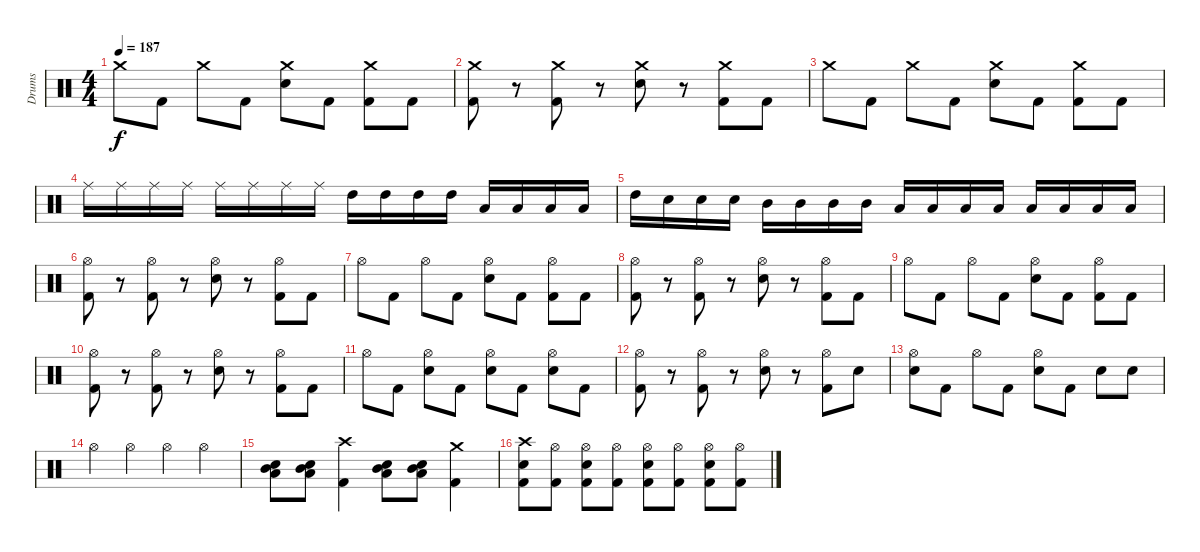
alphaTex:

\track ("Drums" "Drums") {instrument percussion}
\staff {score}
\articulation defaults
\ts (4 4)
\tempo 187
\clef neutral
\ks c "Crash medium (hit)".8{dy f} "Kick (hit) 2".8 "Crash medium (hit)".8 "Kick (hit) 2".8
("Crash medium (hit)" "Electric Snare (hit)").8 "Kick (hit) 2".8 ("Crash medium (hit)" "Kick (hit) 2").8 "Kick (hit) 2".8 |
("Crash medium (hit)" "Kick (hit) 2").8 r.8 ("Crash medium (hit)" "Kick (hit) 2").8 r.8 ("Crash medium (hit)" "Electric Snare (hit)").8 r.8 ("Crash medium (hit)" "Kick (hit) 2").8 "Kick (hit) 2".8 |
"Crash medium (hit)".8 "Kick (hit) 2".8 "Crash medium (hit)".8 "Kick (hit) 2".8 ("Crash medium (hit)" "Electric Snare (hit)").8 "Kick (hit) 2".8 ("Crash medium (hit)" "Kick (hit) 2").8 "Kick (hit) 2".8 |
"Ride (middle)".16 "Ride (middle)".16 "Ride (middle)".16 "Ride (middle)".16 "Ride (middle)".16 "Ride (middle)".16 "Ride (middle)".16 "Ride (middle)".16 "High Tom (hit)".16 "High Tom (hit)".16 "High Tom (hit)".16 "High Tom (hit)".16 "Low Tom (hit)".16 "Low Tom (hit)".16 "Low Tom (hit)".16 "Low Tom (hit)".16 |
"High Tom (hit)".16 "Electric Snare (hit)".16 "Electric Snare (hit)".16 "Electric Snare (hit)".16 "Mid Tom (hit)".16 "Mid Tom (hit)".16 "Mid Tom (hit)".16 "Mid Tom (hit)".16 "Low Tom (hit)".16 "Low Tom (hit)".16 "Low Tom (hit)".16 "Low Tom (hit)".16 "Low Floor Tom (hit)".16 "Low Floor Tom (hit)".16 "Low Floor Tom (hit)".16 "Low Floor Tom (hit)".16 |
("Hi-Hat (open)" "Kick (hit) 2").8 r.8 ("Hi-Hat (open)" "Kick (hit) 2").8 r.8 ("Hi-Hat (open)" "Electric Snare (hit)").8 r.8 ("Hi-Hat (open)" "Kick (hit) 2").8 "Kick (hit) 2".8 |
"Hi-Hat (open)".8 "Kick (hit) 2".8 "Hi-Hat (open)".8 "Kick (hit) 2".8 ("Hi-Hat (open)" "Electric Snare (hit)").8 "Kick (hit) 2".8 ("Hi-Hat (open)" "Kick (hit) 2").8 "Kick (hit) 2".8 |
("Hi-Hat (open)" "Kick (hit) 2").8 r.8 ("Hi-Hat (open)" "Kick (hit) 2").8 r.8 ("Hi-Hat (open)" "Electric Snare (hit)").8 r.8 ("Hi-Hat (open)" "Kick (hit) 2").8 "Kick (hit) 2".8 |
"Hi-Hat (open)".8 "Kick (hit) 2".8 "Hi-Hat (open)".8 "Kick (hit) 2".8 ("Hi-Hat (open)" "Electric Snare (hit)").8 "Kick (hit) 2".8 ("Hi-Hat (open)" "Kick (hit) 2").8 "Kick (hit) 2".8 |
("Hi-Hat (open)" "Kick (hit) 2").8 r.8 ("Hi-Hat (open)" "Kick (hit) 2").8 r.8 ("Hi-Hat (open)" "Electric Snare (hit)").8 r.8 ("Hi-Hat (open)" "Kick (hit) 2").8 "Kick (hit) 2".8 |
"Hi-Hat (open)".8 "Kick (hit) 2".8 ("Hi-Hat (open)" "Electric Snare (hit)").8 "Kick (hit) 2".8 ("Hi-Hat (open)" "Electric Snare (hit)").8 "Kick (hit) 2".8 ("Hi-Hat (open)" "Electric Snare (hit)").8 "Kick (hit) 2".8 |
("Hi-Hat (open)" "Kick (hit) 2").8 r.8 ("Hi-Hat (open)" "Kick (hit) 2").8 r.8 ("Hi-Hat (open)" "Electric Snare (hit)").8 r.8 ("Hi-Hat (open)" "Kick (hit) 2").8 "Electric Snare (hit)".8 |
("Hi-Hat (open)" "Electric Snare (hit)").8 "Kick (hit) 2".8 "Hi-Hat (open)".8 "Kick (hit) 2".8 ("Hi-Hat (open)" "Electric Snare (hit)").8 "Kick (hit) 2".8 "Electric Snare (hit)".8 "Electric Snare (hit)".8 |
"Hi-Hat (open)".4 "Hi-Hat (open)".4 "Hi-Hat (open)".4 "Hi-Hat (open)".4 |
("Low Tom (hit)" "Mid Tom (hit)" "Electric Snare (hit)").8 ("Low Tom (hit)" "Mid Tom (hit)" "Electric Snare (hit)").8 ("Crash high (hit)" "Kick (hit) 2").4 ("Low Tom (hit)" "Mid Tom (hit)" "Electric Snare (hit)").8 ("Low Tom (hit)" "Mid Tom (hit)" "Electric Snare (hit)").8 ("Crash medium (hit)" "Kick (hit) 2").4 |
("Kick (hit) 2" "Electric Snare (hit)" "Crash high (hit)").8 ("Kick (hit) 2" "Hi-Hat (open)").8 ("Kick (hit) 2" "Electric Snare (hit)" "Hi-Hat (open)").8 ("Kick (hit) 2" "Hi-Hat (open)").8 ("Kick (hit) 2" "Electric Snare (hit)" "Hi-Hat (open)").8 ("Kick (hit) 2" "Hi-Hat (open)").8 ("Kick (hit) 2" "Electric Snare (hit)" "Hi-Hat (open)").8 ("Kick (hit) 2" "Hi-Hat (open)").8
